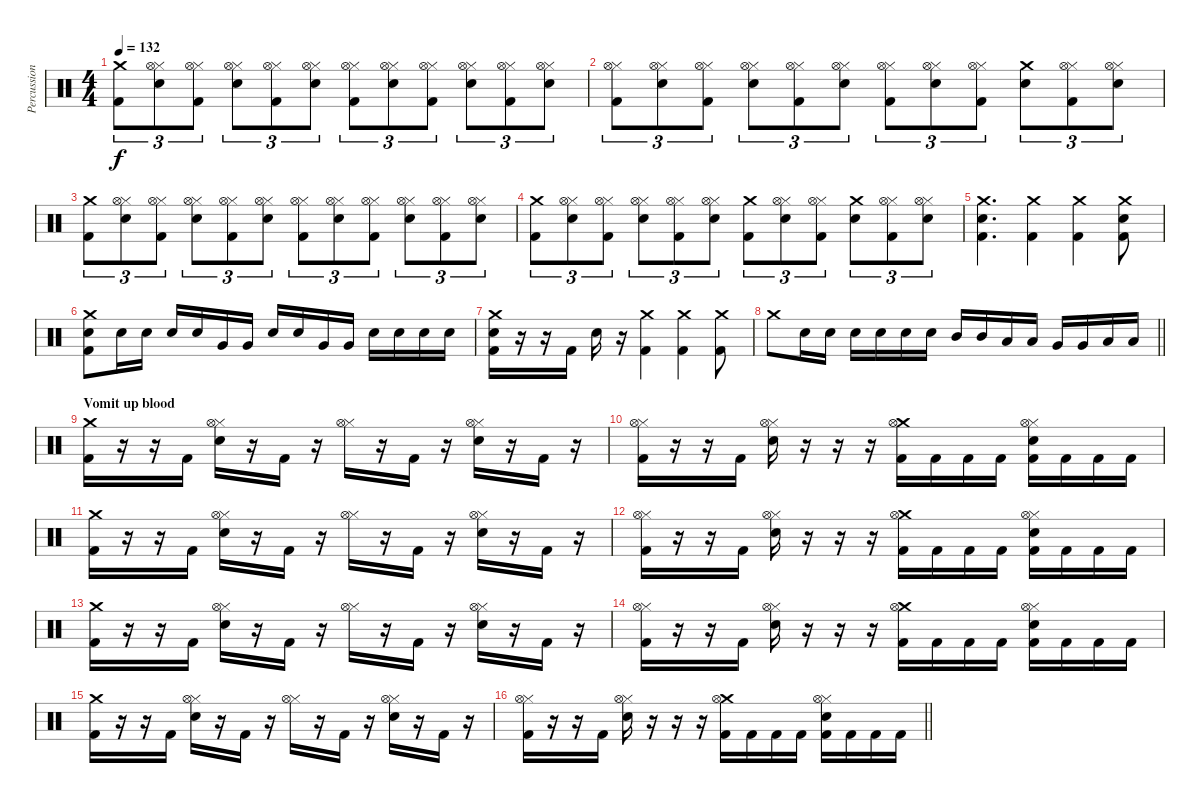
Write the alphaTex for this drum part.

\track ("Percussion" "Percussion") {instrument percussion}
\staff {score}
\articulation defaults
\ts (4 4)
\tempo 132
\clef neutral
\ks c
("Crash medium (hit)" "Kick (hit) 2").8{tu (3 2) dy f} ("Hi-Hat (closed)" "Snare (hit) 2" "Hi-Hat (open)").8{tu (3 2)} ("Hi-Hat (closed)" "Kick (hit) 2" "Hi-Hat (open)").8{tu (3 2)} ("Hi-Hat (closed)" "Snare (hit) 2" "Hi-Hat (open)").8{tu (3 2)} ("Hi-Hat (closed)" "Kick (hit) 2" "Hi-Hat (open)").8{tu (3 2)} ("Hi-Hat (closed)" "Snare (hit) 2" "Hi-Hat (open)").8{tu (3 2)} ("Hi-Hat (closed)" "Kick (hit) 2" "Hi-Hat (open)").8{tu (3 2)} ("Hi-Hat (closed)" "Snare (hit) 2" "Hi-Hat (open)").8{tu (3 2)} ("Hi-Hat (closed)" "Kick (hit) 2" "Hi-Hat (open)").8{tu (3 2)} ("Hi-Hat (closed)" "Snare (hit) 2" "Hi-Hat (open)").8{tu (3 2)} ("Hi-Hat (closed)" "Kick (hit) 2" "Hi-Hat (open)").8{tu (3 2)} ("Hi-Hat (closed)" "Snare (hit) 2" "Hi-Hat (open)").8{tu (3 2)} |
("Hi-Hat (closed)" "Kick (hit) 2" "Hi-Hat (open)").8{tu (3 2)} ("Hi-Hat (closed)" "Snare (hit) 2" "Hi-Hat (open)").8{tu (3 2)} ("Hi-Hat (closed)" "Kick (hit) 2" "Hi-Hat (open)").8{tu (3 2)} ("Hi-Hat (closed)" "Snare (hit) 2" "Hi-Hat (open)").8{tu (3 2)} ("Hi-Hat (closed)" "Kick (hit) 2" "Hi-Hat (open)").8{tu (3 2)} ("Hi-Hat (closed)" "Snare (hit) 2" "Hi-Hat (open)").8{tu (3 2)} ("Hi-Hat (closed)" "Kick (hit) 2" "Hi-Hat (open)").8{tu (3 2)} ("Hi-Hat (closed)" "Snare (hit) 2" "Hi-Hat (open)").8{tu (3 2)} ("Hi-Hat (closed)" "Kick (hit) 2" "Hi-Hat (open)").8{tu (3 2)} ("Crash medium (hit)" "Snare (hit) 2").8{tu (3 2)} ("Hi-Hat (closed)" "Kick (hit) 2" "Hi-Hat (open)").8{tu (3 2)} ("Hi-Hat (closed)" "Snare (hit) 2" "Hi-Hat (open)").8{tu (3 2)} |
("Crash medium (hit)" "Kick (hit) 2").8{tu (3 2)} ("Hi-Hat (closed)" "Snare (hit) 2" "Hi-Hat (open)").8{tu (3 2)} ("Hi-Hat (closed)" "Kick (hit) 2" "Hi-Hat (open)").8{tu (3 2)} ("Hi-Hat (closed)" "Snare (hit) 2" "Hi-Hat (open)").8{tu (3 2)} ("Hi-Hat (closed)" "Kick (hit) 2" "Hi-Hat (open)").8{tu (3 2)} ("Hi-Hat (closed)" "Snare (hit) 2" "Hi-Hat (open)").8{tu (3 2)} ("Hi-Hat (closed)" "Kick (hit) 2" "Hi-Hat (open)").8{tu (3 2)} ("Hi-Hat (closed)" "Snare (hit) 2" "Hi-Hat (open)").8{tu (3 2)} ("Hi-Hat (closed)" "Kick (hit) 2" "Hi-Hat (open)").8{tu (3 2)} ("Hi-Hat (closed)" "Snare (hit) 2" "Hi-Hat (open)").8{tu (3 2)} ("Hi-Hat (closed)" "Kick (hit) 2" "Hi-Hat (open)").8{tu (3 2)} ("Hi-Hat (closed)" "Snare (hit) 2" "Hi-Hat (open)").8{tu (3 2)} |
("Crash medium (hit)" "Kick (hit) 2").8{tu (3 2)} ("Hi-Hat (closed)" "Snare (hit) 2" "Hi-Hat (open)").8{tu (3 2)} ("Hi-Hat (closed)" "Kick (hit) 2" "Hi-Hat (open)").8{tu (3 2)} ("Hi-Hat (closed)" "Snare (hit) 2" "Hi-Hat (open)").8{tu (3 2)} ("Hi-Hat (closed)" "Kick (hit) 2" "Hi-Hat (open)").8{tu (3 2)} ("Hi-Hat (closed)" "Snare (hit) 2" "Hi-Hat (open)").8{tu (3 2)} ("Crash medium (hit)" "Kick (hit) 2").8{tu (3 2)} ("Hi-Hat (closed)" "Snare (hit) 2" "Hi-Hat (open)").8{tu (3 2)} ("Hi-Hat (closed)" "Kick (hit) 2" "Hi-Hat (open)").8{tu (3 2)} ("Crash medium (hit)" "Snare (hit) 2").8{tu (3 2)} ("Hi-Hat (closed)" "Kick (hit) 2" "Hi-Hat (open)").8{tu (3 2)} ("Hi-Hat (closed)" "Snare (hit) 2" "Hi-Hat (open)").8{tu (3 2)} |
("Crash medium (hit)" "Snare (hit) 2" "Kick (hit) 2").4{d} ("Crash medium (hit)" "Kick (hit) 2").4 ("Crash medium (hit)" "Kick (hit) 2").4 ("Crash medium (hit)" "Snare (hit) 2" "Kick (hit) 2").8 |
("Crash medium (hit)" "Snare (hit) 2" "Kick (hit) 2").8 "Snare (hit) 2".16 "Snare (hit) 2".16 "Snare (hit) 2".16 "Snare (hit) 2".16 "Very Low Tom (hit)".16 "Very Low Tom (hit)".16 "Snare (hit) 2".16 "Snare (hit) 2".16 "Very Low Tom (hit)".16 "Very Low Tom (hit)".16 "Snare (hit) 2".16 "Snare (hit) 2".16 "Snare (hit) 2".16 "Snare (hit) 2".16 |
("Crash medium (hit)" "Snare (hit) 2" "Kick (hit) 2").16 r.16 r.16 "Kick (hit) 2".16 "Snare (hit) 2".16 r.16 ("Crash medium (hit)" "Kick (hit) 2").4 ("Crash medium (hit)" "Kick (hit) 2").4 ("Crash medium (hit)" "Kick (hit) 2").8 |
\barLineRight lightlight "Crash medium (hit)".8 "Snare (hit) 2".16 "Snare (hit) 2".16 "Snare (hit) 2".16 "Snare (hit) 2".16 "Snare (hit) 2".16 "Snare (hit) 2".16 "Mid Tom (hit)".16 "Mid Tom (hit)".16 "Low Tom (hit)".16 "Low Tom (hit)".16 "Very Low Tom (hit)".16 "Very Low Tom (hit)".16 "Low Floor Tom (hit)".16 "Low Floor Tom (hit)".16
|
\section ("" "Vomit up blood")
("Crash medium (hit)" "Kick (hit) 2").16 r.16 r.16 "Kick (hit) 2".16 ("Hi-Hat (closed)" "Snare (hit) 2" "Hi-Hat (open)").16 r.16 "Kick (hit) 2".16 r.16 ("Hi-Hat (closed)" "Hi-Hat (open)").16 r.16 "Kick (hit) 2".16 r.16 ("Hi-Hat (closed)" "Snare (hit) 2" "Hi-Hat (open)").16 r.16 "Kick (hit) 2".16 r.16 |
("Hi-Hat (closed)" "Kick (hit) 2" "Hi-Hat (open)").16 r.16 r.16 "Kick (hit) 2".16 ("Hi-Hat (closed)" "Snare (hit) 2" "Hi-Hat (open)").16 r.16 r.16 r.16 ("Crash medium (hit)" "Kick (hit) 2" "Hi-Hat (open)").16 "Kick (hit) 2".16 "Kick (hit) 2".16 "Kick (hit) 2".16 ("Hi-Hat (closed)" "Snare (hit) 2" "Kick (hit) 2" "Hi-Hat (open)").16 "Kick (hit) 2".16 "Kick (hit) 2".16 "Kick (hit) 2".16 |
("Crash medium (hit)" "Kick (hit) 2").16 r.16 r.16 "Kick (hit) 2".16 ("Hi-Hat (closed)" "Snare (hit) 2" "Hi-Hat (open)").16 r.16 "Kick (hit) 2".16 r.16 ("Hi-Hat (closed)" "Hi-Hat (open)").16 r.16 "Kick (hit) 2".16 r.16 ("Hi-Hat (closed)" "Snare (hit) 2" "Hi-Hat (open)").16 r.16 "Kick (hit) 2".16 r.16 |
("Hi-Hat (closed)" "Kick (hit) 2" "Hi-Hat (open)").16 r.16 r.16 "Kick (hit) 2".16 ("Hi-Hat (closed)" "Snare (hit) 2" "Hi-Hat (open)").16 r.16 r.16 r.16 ("Crash medium (hit)" "Kick (hit) 2" "Hi-Hat (open)").16 "Kick (hit) 2".16 "Kick (hit) 2".16 "Kick (hit) 2".16 ("Hi-Hat (closed)" "Snare (hit) 2" "Kick (hit) 2" "Hi-Hat (open)").16 "Kick (hit) 2".16 "Kick (hit) 2".16 "Kick (hit) 2".16 |
("Crash medium (hit)" "Kick (hit) 2").16 r.16 r.16 "Kick (hit) 2".16 ("Hi-Hat (closed)" "Snare (hit) 2" "Hi-Hat (open)").16 r.16 "Kick (hit) 2".16 r.16 ("Hi-Hat (closed)" "Hi-Hat (open)").16 r.16 "Kick (hit) 2".16 r.16 ("Hi-Hat (closed)" "Snare (hit) 2" "Hi-Hat (open)").16 r.16 "Kick (hit) 2".16 r.16 |
("Hi-Hat (closed)" "Kick (hit) 2" "Hi-Hat (open)").16 r.16 r.16 "Kick (hit) 2".16 ("Hi-Hat (closed)" "Snare (hit) 2" "Hi-Hat (open)").16 r.16 r.16 r.16 ("Crash medium (hit)" "Kick (hit) 2" "Hi-Hat (open)").16 "Kick (hit) 2".16 "Kick (hit) 2".16 "Kick (hit) 2".16 ("Hi-Hat (closed)" "Snare (hit) 2" "Kick (hit) 2" "Hi-Hat (open)").16 "Kick (hit) 2".16 "Kick (hit) 2".16 "Kick (hit) 2".16 |
("Crash medium (hit)" "Kick (hit) 2").16 r.16 r.16 "Kick (hit) 2".16 ("Hi-Hat (closed)" "Snare (hit) 2" "Hi-Hat (open)").16 r.16 "Kick (hit) 2".16 r.16 ("Hi-Hat (closed)" "Hi-Hat (open)").16 r.16 "Kick (hit) 2".16 r.16 ("Hi-Hat (closed)" "Snare (hit) 2" "Hi-Hat (open)").16 r.16 "Kick (hit) 2".16 r.16 |
\barLineRight lightlight
("Hi-Hat (closed)" "Kick (hit) 2" "Hi-Hat (open)").16 r.16 r.16 "Kick (hit) 2".16 ("Hi-Hat (closed)" "Snare (hit) 2" "Hi-Hat (open)").16 r.16 r.16 r.16 ("Crash medium (hit)" "Kick (hit) 2" "Hi-Hat (open)").16 "Kick (hit) 2".16 "Kick (hit) 2".16 "Kick (hit) 2".16 ("Hi-Hat (closed)" "Snare (hit) 2" "Kick (hit) 2" "Hi-Hat (open)").16 "Kick (hit) 2".16 "Kick (hit) 2".16 "Kick (hit) 2".16
